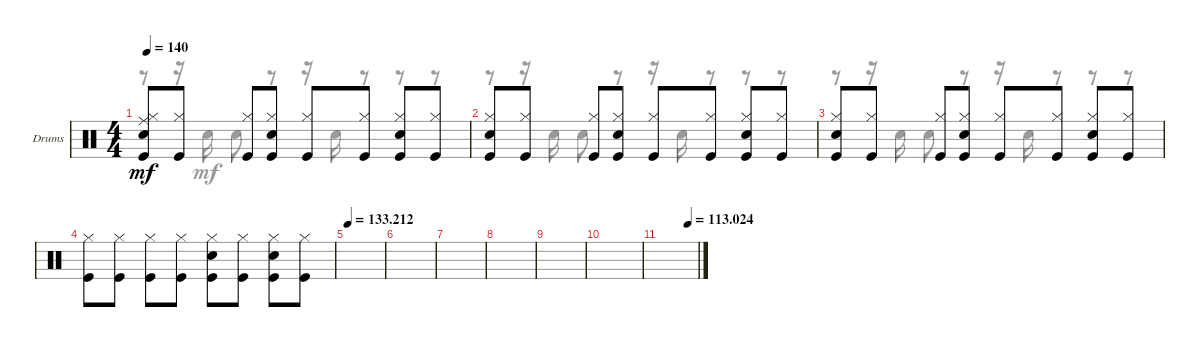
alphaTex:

\defaultSystemsLayout 4
\bracketExtendMode groupsimilarinstruments
\firstSystemTrackNameOrientation horizontal
\otherSystemsTrackNameOrientation horizontal
\track ("Ударные" "Drums") {instrument percussion}
\staff {score}
\articulation defaults
\voice
\ts (4 4)
\tempo 140
\clef neutral
\scale
0.333333
\ks c
("Snare (hit) 2" "Hi-Hat (closed)" "Kick (hit)" "Ride (middle)").8{dy mf} ("Hi-Hat (closed)" "Kick (hit)").8 ("Hi-Hat (closed)" "Kick (hit)").8 ("Snare (hit) 2" "Hi-Hat (closed)" "Kick (hit)").8 ("Hi-Hat (closed)" "Kick (hit)").8 ("Hi-Hat (closed)" "Kick (hit)").8 ("Snare (hit) 2" "Hi-Hat (closed)" "Kick (hit)").8 ("Hi-Hat (closed)" "Kick (hit)").8 |
\scale
0.333333 ("Snare (hit) 2" "Hi-Hat (closed)" "Kick (hit)").8 ("Hi-Hat (closed)" "Kick (hit)").8 ("Hi-Hat (closed)" "Kick (hit)").8 ("Snare (hit) 2" "Hi-Hat (closed)" "Kick (hit)").8 ("Hi-Hat (closed)" "Kick (hit)").8 ("Hi-Hat (closed)" "Kick (hit)").8 ("Snare (hit) 2" "Hi-Hat (closed)" "Kick (hit)").8 ("Hi-Hat (closed)" "Kick (hit)").8 |
\scale
0.333333 ("Snare (hit) 2" "Hi-Hat (closed)" "Kick (hit)").8 ("Hi-Hat (closed)" "Kick (hit)").8 ("Hi-Hat (closed)" "Kick (hit)").8 ("Snare (hit) 2" "Hi-Hat (closed)" "Kick (hit)").8 ("Hi-Hat (closed)" "Kick (hit)").8 ("Hi-Hat (closed)" "Kick (hit)").8 ("Snare (hit) 2" "Hi-Hat (closed)" "Kick (hit)").8 ("Hi-Hat (closed)" "Kick (hit)").8 |
\scale
0.333333 ("Hi-Hat (closed)" "Kick (hit)").8 ("Hi-Hat (closed)" "Kick (hit)").8 ("Hi-Hat (closed)" "Kick (hit)").8 ("Hi-Hat (closed)" "Kick (hit)").8 ("Hi-Hat (closed)" "Kick (hit)" "Snare (hit) 2").8 ("Hi-Hat (closed)" "Kick (hit)").8 ("Snare (hit) 2" "Hi-Hat (closed)" "Kick (hit)").8 ("Hi-Hat (closed)" "Kick (hit)").8 |
\tempo
133.212
\scale
0.333333 |
\scale
0.333333 |
\scale
0.333333 |
\scale
0.333333 |
\scale
0.333333 |
|
\tempo (113.024 0.75)
|
\voice
\clef neutral
\ottava regular
\simile none
\scale
0.333333
\ks c
r.8{dy mf} r.16 "Snare (hit) 2".16 "Snare (hit) 2".8 r.8 r.16 "Snare (hit) 2".16 r.8 r.8 r.8 |
\scale
0.333333 r.8 r.16 "Snare (hit) 2".16 "Snare (hit) 2".8 r.8 r.16 "Snare (hit) 2".16 r.8 r.8 r.8 |
\scale
0.333333 r.8 r.16 "Snare (hit) 2".16 "Snare (hit) 2".8 r.8 r.16 "Snare (hit) 2".16 r.8 r.8 r.8 |
\scale
0.333333 |
\scale
0.333333 |
\scale
0.333333 |
\scale
0.333333 |
\scale
0.333333 |
\scale
0.333333 |
|
|
